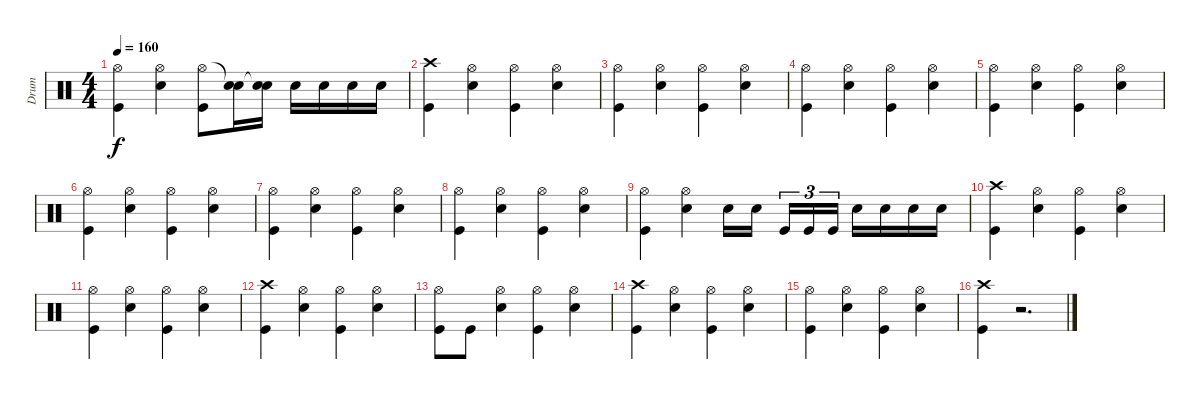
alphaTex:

\track ("Drum" "Drum") {instrument percussion}
\staff {score}
\articulation defaults
\ts (4 4)
\tempo 160
\clef neutral
\ks c
("Hi-Hat (open)" "Kick (hit)").4{dy f} ("Hi-Hat (open)" "Snare (hit) 2").4 ("Hi-Hat (open)" "Kick (hit)").8 ("Snare (hit)"{t} "Snare (hit) 2").16 ("Snare (hit)"{t} "Snare (hit) 2").16 "Snare (hit) 2".16 "Snare (hit) 2".16 "Snare (hit) 2".16 "Snare (hit) 2".16 |
("Crash high (hit)" "Kick (hit)").4 ("Hi-Hat (open)" "Snare (hit) 2").4 ("Hi-Hat (open)" "Kick (hit)").4 ("Hi-Hat (open)" "Snare (hit) 2").4 |
("Hi-Hat (open)" "Kick (hit)").4 ("Hi-Hat (open)" "Snare (hit) 2").4 ("Hi-Hat (open)" "Kick (hit)").4 ("Hi-Hat (open)" "Snare (hit) 2").4 |
("Hi-Hat (open)" "Kick (hit)").4 ("Hi-Hat (open)" "Snare (hit) 2").4 ("Hi-Hat (open)" "Kick (hit)").4 ("Hi-Hat (open)" "Snare (hit) 2").4 |
("Hi-Hat (open)" "Kick (hit)").4 ("Hi-Hat (open)" "Snare (hit) 2").4 ("Hi-Hat (open)" "Kick (hit)").4 ("Hi-Hat (open)" "Snare (hit) 2").4 |
("Hi-Hat (open)" "Kick (hit)").4 ("Hi-Hat (open)" "Snare (hit) 2").4 ("Hi-Hat (open)" "Kick (hit)").4 ("Hi-Hat (open)" "Snare (hit) 2").4 |
("Hi-Hat (open)" "Kick (hit)").4 ("Hi-Hat (open)" "Snare (hit) 2").4 ("Hi-Hat (open)" "Kick (hit)").4 ("Hi-Hat (open)" "Snare (hit) 2").4 |
("Hi-Hat (open)" "Kick (hit)").4 ("Hi-Hat (open)" "Snare (hit) 2").4 ("Hi-Hat (open)" "Kick (hit)").4 ("Hi-Hat (open)" "Snare (hit) 2").4 |
("Hi-Hat (open)" "Kick (hit)").4 ("Hi-Hat (open)" "Snare (hit) 2").4 "Snare (hit) 2".16 "Snare (hit) 2".16{beam splitsecondary} "Kick (hit)".16{tu (3 2)} "Kick (hit)".16{tu (3 2)} "Kick (hit)".16{tu (3 2)} "Snare (hit) 2".16 "Snare (hit) 2".16 "Snare (hit) 2".16 "Snare (hit) 2".16 |
("Crash high (hit)" "Kick (hit)").4 ("Hi-Hat (open)" "Snare (hit) 2").4 ("Hi-Hat (open)" "Kick (hit)").4 ("Hi-Hat (open)" "Snare (hit) 2").4 |
("Hi-Hat (open)" "Kick (hit)").4 ("Hi-Hat (open)" "Snare (hit) 2").4 ("Hi-Hat (open)" "Kick (hit)").4 ("Hi-Hat (open)" "Snare (hit) 2").4 |
("Crash high (hit)" "Kick (hit)").4 ("Hi-Hat (open)" "Snare (hit) 2").4 ("Hi-Hat (open)" "Kick (hit)").4 ("Hi-Hat (open)" "Snare (hit) 2").4 |
("Hi-Hat (open)" "Kick (hit)").8 "Kick (hit)".8 ("Hi-Hat (open)" "Snare (hit) 2").4 ("Hi-Hat (open)" "Kick (hit)").4 ("Hi-Hat (open)" "Snare (hit) 2").4 |
("Crash high (hit)" "Kick (hit)").4 ("Hi-Hat (open)" "Snare (hit) 2").4 ("Hi-Hat (open)" "Kick (hit)").4 ("Hi-Hat (open)" "Snare (hit) 2").4 |
("Hi-Hat (open)" "Kick (hit)").4 ("Hi-Hat (open)" "Snare (hit) 2").4 ("Hi-Hat (open)" "Kick (hit)").4 ("Hi-Hat (open)" "Snare (hit) 2").4 |
("Crash high (hit)" "Kick (hit)").4 r.2{d}
